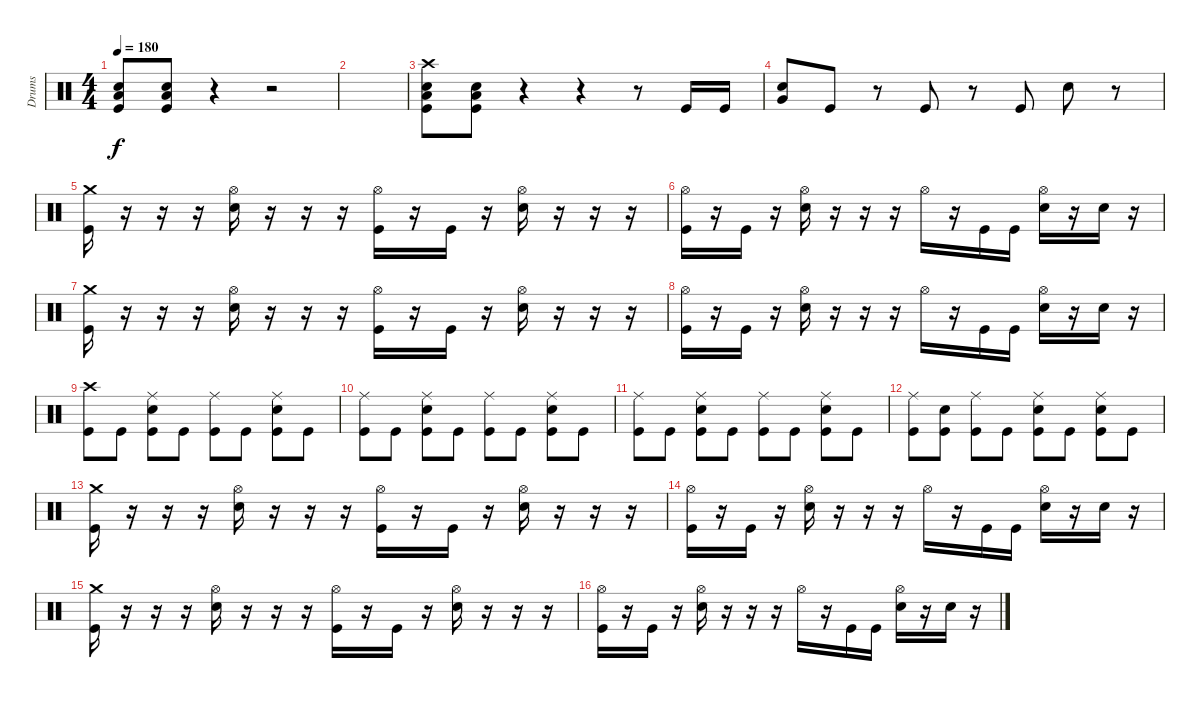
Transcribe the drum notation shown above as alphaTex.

\track ("Drums" "Drums") {instrument percussion}
\staff {score}
\articulation defaults
\ts (4 4)
\tempo 180
\clef neutral
\ks c
("Low Floor Tom (hit)" "Snare (hit) 2" "Kick (hit)").8{dy f} ("Low Floor Tom (hit)" "Snare (hit) 2" "Kick (hit)").8 r.4 r.2 |
|
("Crash high (hit)" "Low Floor Tom (hit)" "Snare (hit) 2" "Kick (hit)").8 ("Low Floor Tom (hit)" "Snare (hit) 2" "Kick (hit)").8 r.4 r.4 r.8 "Kick (hit)".16 "Kick (hit)".16 |
("Very Low Tom (hit)" "Snare (hit) 2").8 "Kick (hit)".8 r.8 "Kick (hit)".8 r.8 "Kick (hit)".8 "Snare (hit) 2".8 r.8 |
("Crash medium (hit)" "Kick (hit)").16 r.16 r.16 r.16 ("Hi-Hat (open)" "Snare (hit) 2").16 r.16 r.16 r.16 ("Hi-Hat (open)" "Kick (hit)").16 r.16 "Kick (hit)".16 r.16 ("Hi-Hat (open)" "Snare (hit) 2").16 r.16 r.16 r.16 |
("Hi-Hat (open)" "Kick (hit)").16 r.16 "Kick (hit)".16 r.16 ("Hi-Hat (open)" "Snare (hit) 2").16 r.16 r.16 r.16 "Hi-Hat (open)".16 r.16 "Kick (hit)".16 "Kick (hit)".16 ("Hi-Hat (open)" "Snare (hit) 2").16 r.16 "Snare (hit) 2".16 r.16 |
("Crash medium (hit)" "Kick (hit)").16 r.16 r.16 r.16 ("Hi-Hat (open)" "Snare (hit) 2").16 r.16 r.16 r.16 ("Hi-Hat (open)" "Kick (hit)").16 r.16 "Kick (hit)".16 r.16 ("Hi-Hat (open)" "Snare (hit) 2").16 r.16 r.16 r.16 |
("Hi-Hat (open)" "Kick (hit)").16 r.16 "Kick (hit)".16 r.16 ("Hi-Hat (open)" "Snare (hit) 2").16 r.16 r.16 r.16 "Hi-Hat (open)".16 r.16 "Kick (hit)".16 "Kick (hit)".16 ("Hi-Hat (open)" "Snare (hit) 2").16 r.16 "Snare (hit) 2".16 r.16 |
("Crash high (hit)" "Kick (hit)").8 "Kick (hit)".8 ("Ride (middle)" "Snare (hit) 2" "Kick (hit)").8 "Kick (hit)".8 ("Ride (middle)" "Kick (hit)").8 "Kick (hit)".8 ("Ride (middle)" "Snare (hit) 2" "Kick (hit)").8 "Kick (hit)".8 |
("Ride (middle)" "Kick (hit)").8 "Kick (hit)".8 ("Ride (middle)" "Snare (hit) 2" "Kick (hit)").8 "Kick (hit)".8 ("Ride (middle)" "Kick (hit)").8 "Kick (hit)".8 ("Ride (middle)" "Snare (hit) 2" "Kick (hit)").8 "Kick (hit)".8 |
("Ride (middle)" "Kick (hit)").8 "Kick (hit)".8 ("Ride (middle)" "Snare (hit) 2" "Kick (hit)").8 "Kick (hit)".8 ("Ride (middle)" "Kick (hit)").8 "Kick (hit)".8 ("Ride (middle)" "Snare (hit) 2" "Kick (hit)").8 "Kick (hit)".8 |
("Ride (middle)" "Kick (hit)").8 ("Snare (hit) 2" "Kick (hit)").8 ("Ride (middle)" "Kick (hit)").8 "Kick (hit)".8 ("Ride (middle)" "Snare (hit) 2" "Kick (hit)").8 "Kick (hit)".8 ("Ride (middle)" "Snare (hit) 2" "Kick (hit)").8 "Kick (hit)".8 |
("Crash medium (hit)" "Kick (hit)").16 r.16 r.16 r.16 ("Hi-Hat (open)" "Snare (hit) 2").16 r.16 r.16 r.16 ("Hi-Hat (open)" "Kick (hit)").16 r.16 "Kick (hit)".16 r.16 ("Hi-Hat (open)" "Snare (hit) 2").16 r.16 r.16 r.16 |
("Hi-Hat (open)" "Kick (hit)").16 r.16 "Kick (hit)".16 r.16 ("Hi-Hat (open)" "Snare (hit) 2").16 r.16 r.16 r.16 "Hi-Hat (open)".16 r.16 "Kick (hit)".16 "Kick (hit)".16 ("Hi-Hat (open)" "Snare (hit) 2").16 r.16 "Snare (hit) 2".16 r.16 |
("Crash medium (hit)" "Kick (hit)").16 r.16 r.16 r.16 ("Hi-Hat (open)" "Snare (hit) 2").16 r.16 r.16 r.16 ("Hi-Hat (open)" "Kick (hit)").16 r.16 "Kick (hit)".16 r.16 ("Hi-Hat (open)" "Snare (hit) 2").16 r.16 r.16 r.16 |
("Hi-Hat (open)" "Kick (hit)").16 r.16 "Kick (hit)".16 r.16 ("Hi-Hat (open)" "Snare (hit) 2").16 r.16 r.16 r.16 "Hi-Hat (open)".16 r.16 "Kick (hit)".16 "Kick (hit)".16 ("Hi-Hat (open)" "Snare (hit) 2").16 r.16 "Snare (hit) 2".16 r.16
